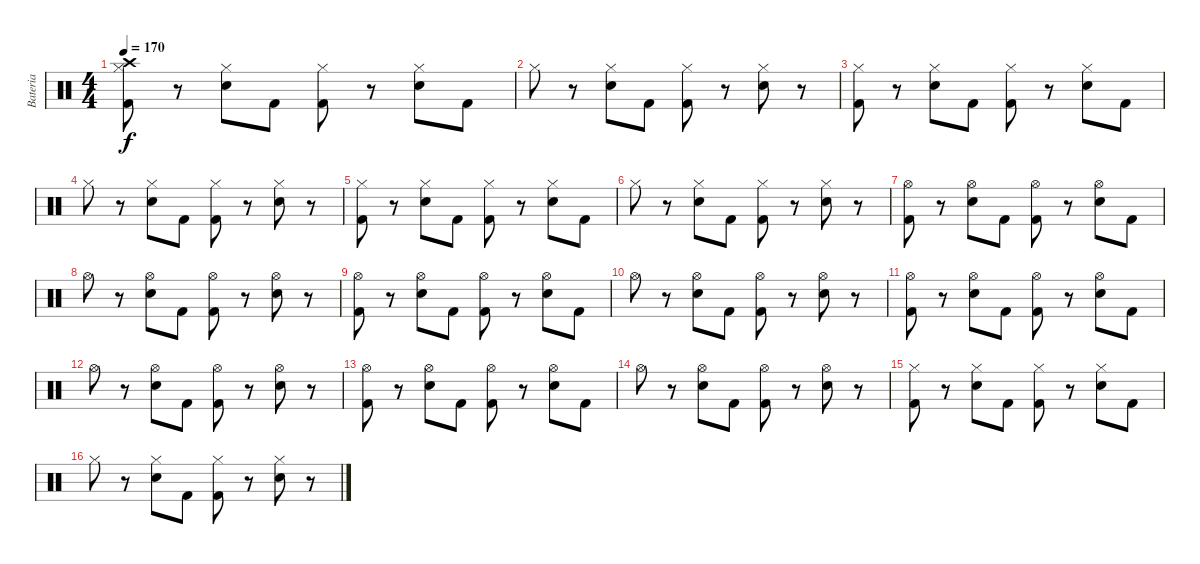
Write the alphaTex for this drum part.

\track ("Bateria" "Bateria") {instrument percussion}
\staff {score}
\articulation defaults
\ts (4 4)
\tempo 170
\clef neutral
\ks c
("Kick (hit) 2" "Hi-Hat (closed)" "Crash high (hit)").8{dy f} r.8 ("Snare (hit) 2" "Hi-Hat (closed)").8 "Kick (hit) 2".8 ("Kick (hit) 2" "Hi-Hat (closed)").8 r.8 ("Snare (hit) 2" "Hi-Hat (closed)").8 "Kick (hit) 2".8 |
"Hi-Hat (closed)".8 r.8 ("Snare (hit) 2" "Hi-Hat (closed)").8 "Kick (hit) 2".8 ("Kick (hit) 2" "Hi-Hat (closed)").8 r.8 ("Snare (hit) 2" "Hi-Hat (closed)").8 r.8 |
("Kick (hit) 2" "Hi-Hat (closed)").8 r.8 ("Snare (hit) 2" "Hi-Hat (closed)").8 "Kick (hit) 2".8 ("Kick (hit) 2" "Hi-Hat (closed)").8 r.8 ("Snare (hit) 2" "Hi-Hat (closed)").8 "Kick (hit) 2".8 |
"Hi-Hat (closed)".8 r.8 ("Snare (hit) 2" "Hi-Hat (closed)").8 "Kick (hit) 2".8 ("Kick (hit) 2" "Hi-Hat (closed)").8 r.8 ("Snare (hit) 2" "Hi-Hat (closed)").8 r.8 |
("Kick (hit) 2" "Hi-Hat (closed)").8 r.8 ("Snare (hit) 2" "Hi-Hat (closed)").8 "Kick (hit) 2".8 ("Kick (hit) 2" "Hi-Hat (closed)").8 r.8 ("Snare (hit) 2" "Hi-Hat (closed)").8 "Kick (hit) 2".8 |
"Hi-Hat (closed)".8 r.8 ("Snare (hit) 2" "Hi-Hat (closed)").8 "Kick (hit) 2".8 ("Kick (hit) 2" "Hi-Hat (closed)").8 r.8 ("Snare (hit) 2" "Hi-Hat (closed)").8 r.8 |
("Kick (hit) 2" "Hi-Hat (open)").8 r.8 ("Snare (hit) 2" "Hi-Hat (open)").8 "Kick (hit) 2".8 ("Kick (hit) 2" "Hi-Hat (open)").8 r.8 ("Snare (hit) 2" "Hi-Hat (open)").8 "Kick (hit) 2".8 |
"Hi-Hat (open)".8 r.8 ("Snare (hit) 2" "Hi-Hat (open)").8 "Kick (hit) 2".8 ("Kick (hit) 2" "Hi-Hat (open)").8 r.8 ("Snare (hit) 2" "Hi-Hat (open)").8 r.8 |
("Kick (hit) 2" "Hi-Hat (open)").8 r.8 ("Snare (hit) 2" "Hi-Hat (open)").8 "Kick (hit) 2".8 ("Kick (hit) 2" "Hi-Hat (open)").8 r.8 ("Snare (hit) 2" "Hi-Hat (open)").8 "Kick (hit) 2".8 |
"Hi-Hat (open)".8 r.8 ("Snare (hit) 2" "Hi-Hat (open)").8 "Kick (hit) 2".8 ("Kick (hit) 2" "Hi-Hat (open)").8 r.8 ("Snare (hit) 2" "Hi-Hat (open)").8 r.8 |
("Kick (hit) 2" "Hi-Hat (open)").8 r.8 ("Snare (hit) 2" "Hi-Hat (open)").8 "Kick (hit) 2".8 ("Kick (hit) 2" "Hi-Hat (open)").8 r.8 ("Snare (hit) 2" "Hi-Hat (open)").8 "Kick (hit) 2".8 |
"Hi-Hat (open)".8 r.8 ("Snare (hit) 2" "Hi-Hat (open)").8 "Kick (hit) 2".8 ("Kick (hit) 2" "Hi-Hat (open)").8 r.8 ("Snare (hit) 2" "Hi-Hat (open)").8 r.8 |
("Kick (hit) 2" "Hi-Hat (open)").8 r.8 ("Snare (hit) 2" "Hi-Hat (open)").8 "Kick (hit) 2".8 ("Kick (hit) 2" "Hi-Hat (open)").8 r.8 ("Snare (hit) 2" "Hi-Hat (open)").8 "Kick (hit) 2".8 |
"Hi-Hat (open)".8 r.8 ("Snare (hit) 2" "Hi-Hat (open)").8 "Kick (hit) 2".8 ("Kick (hit) 2" "Hi-Hat (open)").8 r.8 ("Snare (hit) 2" "Hi-Hat (open)").8 r.8 |
("Kick (hit) 2" "Hi-Hat (closed)").8 r.8 ("Snare (hit) 2" "Hi-Hat (closed)").8 "Kick (hit) 2".8 ("Kick (hit) 2" "Hi-Hat (closed)").8 r.8 ("Snare (hit) 2" "Hi-Hat (closed)").8 "Kick (hit) 2".8 |
"Hi-Hat (closed)".8 r.8 ("Snare (hit) 2" "Hi-Hat (closed)").8 "Kick (hit) 2".8 ("Kick (hit) 2" "Hi-Hat (closed)").8 r.8 ("Snare (hit) 2" "Hi-Hat (closed)").8 r.8
